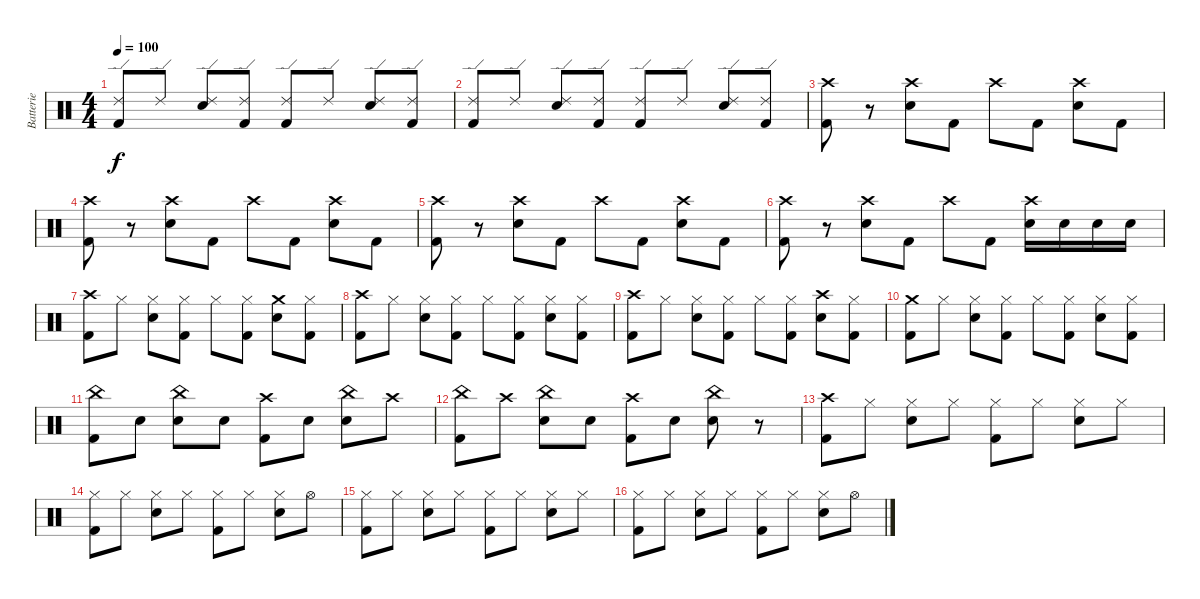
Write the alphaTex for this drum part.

\track ("Batterie" "Batterie") {instrument percussion}
\staff {score}
\articulation defaults
\ts (4 4)
\tempo 100
\clef neutral
\ks c
("Ride (edge) 2" "Kick (hit) 2").8{dy f} "Ride (edge) 2".8 ("Ride (edge) 2" "Electric Snare (hit)").8 ("Ride (edge) 2" "Kick (hit) 2").8 ("Ride (edge) 2" "Kick (hit) 2").8 "Ride (edge) 2".8 ("Ride (edge) 2" "Electric Snare (hit)").8 ("Ride (edge) 2" "Kick (hit) 2").8 |
("Ride (edge) 2" "Kick (hit) 2").8 "Ride (edge) 2".8 ("Ride (edge) 2" "Electric Snare (hit)").8 ("Ride (edge) 2" "Kick (hit) 2").8 ("Ride (edge) 2" "Kick (hit) 2").8 "Ride (edge) 2".8 ("Ride (edge) 2" "Electric Snare (hit)").8 ("Ride (edge) 2" "Kick (hit) 2").8 |
("Crash high (hit)" "Kick (hit) 2").8 r.8 ("Crash high (hit)" "Electric Snare (hit)").8 "Kick (hit) 2".8 "Crash high (hit)".8 "Kick (hit) 2".8 ("Crash high (hit)" "Electric Snare (hit)").8 "Kick (hit) 2".8 |
("Crash high (hit)" "Kick (hit) 2").8 r.8 ("Crash high (hit)" "Electric Snare (hit)").8 "Kick (hit) 2".8 "Crash high (hit)".8 "Kick (hit) 2".8 ("Crash high (hit)" "Electric Snare (hit)").8 "Kick (hit) 2".8 |
("Crash high (hit)" "Kick (hit) 2").8 r.8 ("Crash high (hit)" "Electric Snare (hit)").8 "Kick (hit) 2".8 "Crash high (hit)".8 "Kick (hit) 2".8 ("Crash high (hit)" "Electric Snare (hit)").8 "Kick (hit) 2".8 |
("Crash high (hit)" "Kick (hit) 2").8 r.8 ("Crash high (hit)" "Electric Snare (hit)").8 "Kick (hit) 2".8 "Crash high (hit)".8 "Kick (hit) 2".8 ("Crash high (hit)" "Electric Snare (hit)").16 "Electric Snare (hit)".16 "Electric Snare (hit)".16 "Electric Snare (hit)".16 |
("Crash high (hit)" "Kick (hit) 2").8 "Hi-Hat (closed)".8 ("Hi-Hat (closed)" "Electric Snare (hit)").8 ("Hi-Hat (closed)" "Kick (hit) 2").8 "Hi-Hat (closed)".8 ("Hi-Hat (closed)" "Kick (hit) 2").8 ("Crash medium (hit)" "Electric Snare (hit)").8 ("Hi-Hat (closed)" "Kick (hit) 2").8 |
("Crash high (hit)" "Kick (hit) 2").8 "Hi-Hat (closed)".8 ("Hi-Hat (closed)" "Electric Snare (hit)").8 ("Hi-Hat (closed)" "Kick (hit) 2").8 "Hi-Hat (closed)".8 ("Hi-Hat (closed)" "Kick (hit) 2").8 ("Hi-Hat (closed)" "Electric Snare (hit)").8 ("Hi-Hat (closed)" "Kick (hit) 2").8 |
("Crash high (hit)" "Kick (hit) 2").8 "Hi-Hat (closed)".8 ("Hi-Hat (closed)" "Electric Snare (hit)").8 ("Hi-Hat (closed)" "Kick (hit) 2").8 "Hi-Hat (closed)".8 ("Hi-Hat (closed)" "Kick (hit) 2").8 ("Crash high (hit)" "Electric Snare (hit)").8 ("Hi-Hat (closed)" "Kick (hit) 2").8 |
("Crash medium (hit)" "Kick (hit) 2").8 "Hi-Hat (closed)".8 ("Hi-Hat (closed)" "Electric Snare (hit)").8 ("Hi-Hat (closed)" "Kick (hit) 2").8 "Hi-Hat (closed)".8 ("Hi-Hat (closed)" "Kick (hit) 2").8 ("Hi-Hat (closed)" "Electric Snare (hit)").8 ("Hi-Hat (closed)" "Kick (hit) 2").8 |
("China (hit)" "Kick (hit) 2").8 "Snare (hit)".8 ("China (hit)" "Electric Snare (hit)").8 "Snare (hit)".8 ("Crash high (hit)" "Kick (hit) 2").8 "Snare (hit)".8 ("China (hit)" "Electric Snare (hit)").8 "Crash high (hit)".8 |
("China (hit)" "Kick (hit) 2").8 "Crash high (hit)".8 ("China (hit)" "Electric Snare (hit)").8 "Snare (hit)".8 ("Crash high (hit)" "Kick (hit) 2").8 "Snare (hit)".8 ("China (hit)" "Electric Snare (hit)").8 r.8 |
("Crash high (hit)" "Kick (hit) 2").8 "Hi-Hat (closed)".8 ("Hi-Hat (closed)" "Electric Snare (hit)").8 "Hi-Hat (closed)".8 ("Hi-Hat (closed)" "Kick (hit) 2").8 "Hi-Hat (closed)".8 ("Hi-Hat (closed)" "Electric Snare (hit)").8 "Hi-Hat (closed)".8 |
("Hi-Hat (closed)" "Kick (hit) 2").8 "Hi-Hat (closed)".8 ("Hi-Hat (closed)" "Electric Snare (hit)").8 "Hi-Hat (closed)".8 ("Hi-Hat (closed)" "Kick (hit) 2").8 "Hi-Hat (closed)".8 ("Hi-Hat (closed)" "Electric Snare (hit)").8 "Hi-Hat (open)".8 |
("Hi-Hat (closed)" "Kick (hit) 2").8 "Hi-Hat (closed)".8 ("Hi-Hat (closed)" "Electric Snare (hit)").8 "Hi-Hat (closed)".8 ("Hi-Hat (closed)" "Kick (hit) 2").8 "Hi-Hat (closed)".8 ("Hi-Hat (closed)" "Electric Snare (hit)").8 "Hi-Hat (closed)".8 |
("Hi-Hat (closed)" "Kick (hit) 2").8 "Hi-Hat (closed)".8 ("Hi-Hat (closed)" "Electric Snare (hit)").8 "Hi-Hat (closed)".8 ("Hi-Hat (closed)" "Kick (hit) 2").8 "Hi-Hat (closed)".8 ("Hi-Hat (closed)" "Electric Snare (hit)").8 "Hi-Hat (open)".8
